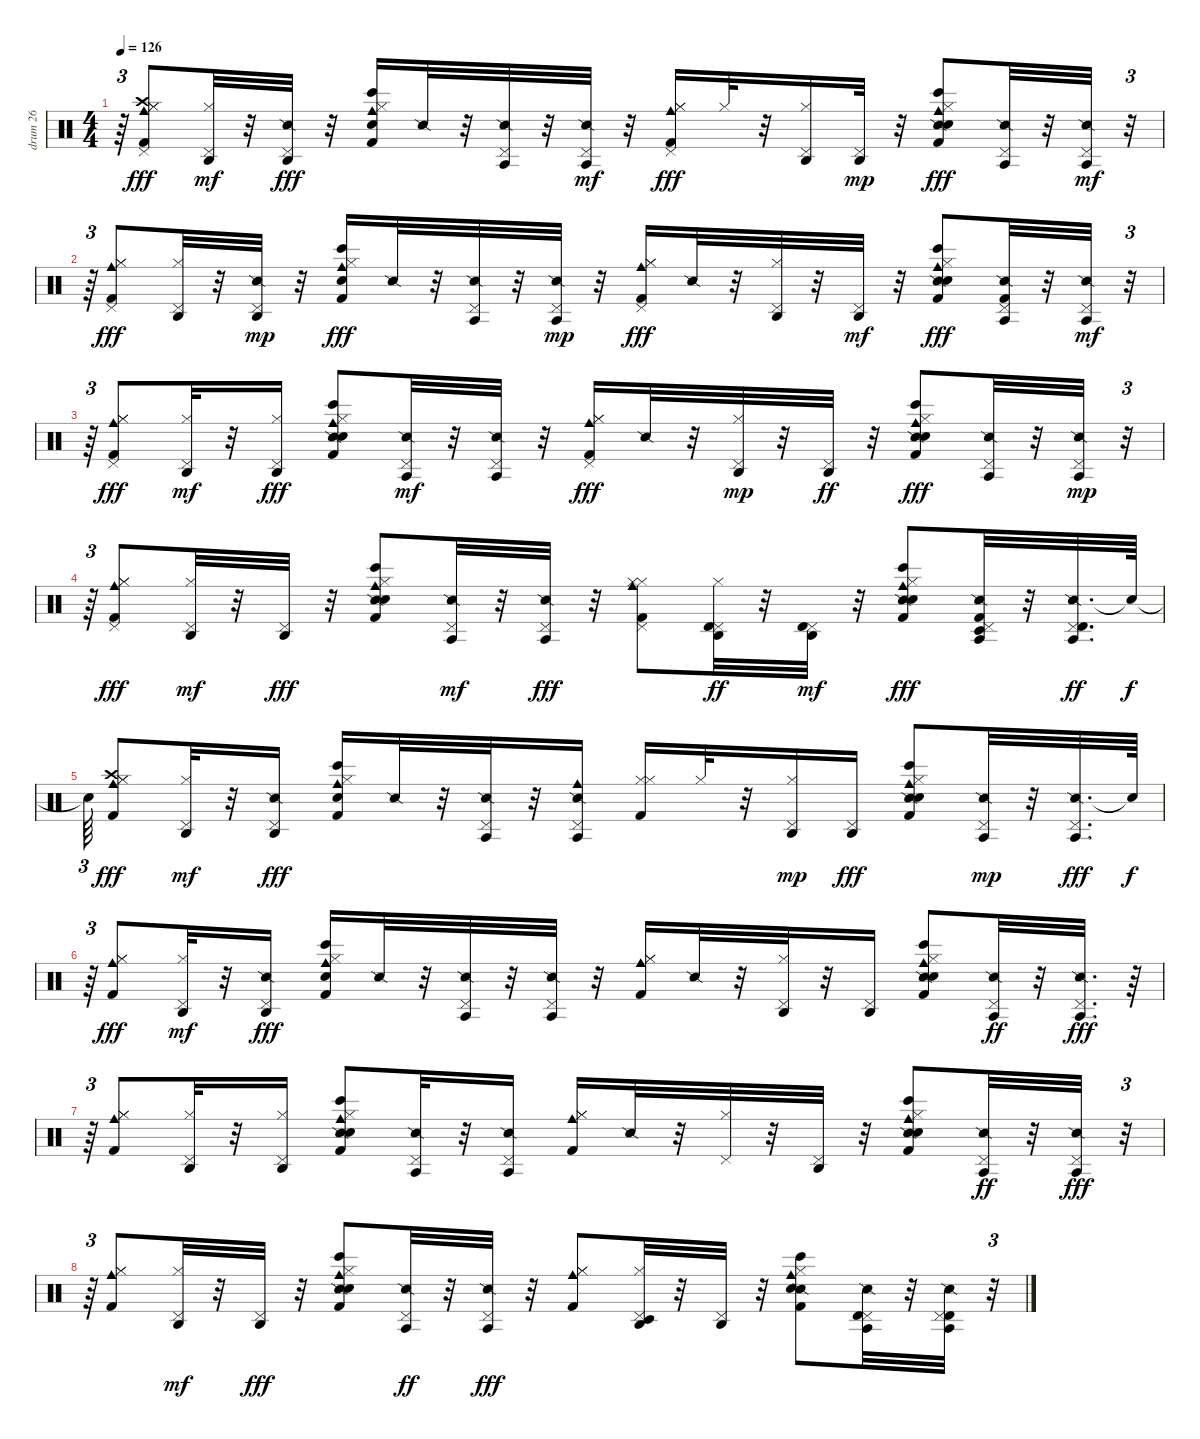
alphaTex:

\track ("drum 26" "drum 26") {instrument percussion}
\staff {score}
\articulation defaults
\ts (4 4)
\tempo 126
\clef neutral
\ks c
r.64{tu (3 2) dy fff} ("Hi-Hat (closed)" "Kick (hit) 2" "Hi-Hat (closed)" "Pedal Hi-Hat (hit)" "Crash high (hit)" "Cowbell medium (hit)").8 ("Hi-Hat (closed)" "Pedal Hi-Hat (hit)" "Agogo high (hit)").32{dy mf} r.32 ("Snare (side stick) 2" "Pedal Hi-Hat (hit)" "Agogo high (hit)").32{dy fff} r.32 ("Bongo High (hit)" "Kick (hit) 2" "Hand Clap (hit)" "Hi-Hat (closed)" "Cowbell medium (hit)").16 "Snare (side stick) 2".32 r.32 ("Snare (side stick) 2" "Pedal Hi-Hat (hit)" "Agogo tow (hit)").32 r.32 ("Snare (side stick) 2" "Pedal Hi-Hat (hit)" "Agogo tow (hit)").32{dy mf} r.32 ("Hi-Hat (closed)" "Kick (hit) 2" "Hi-Hat (closed)" "Pedal Hi-Hat (hit)" "Cowbell medium (hit)").16{dy fff} "Hi-Hat (closed)".32 r.32 ("Hi-Hat (closed)" "Pedal Hi-Hat (hit)" "Agogo high (hit)").16 ("Pedal Hi-Hat (hit)" "Agogo high (hit)").32{dy mp} r.32 ("Bongo High (hit)" "Snare (side stick) 2" "Kick (hit) 2" "Hand Clap (hit)" "Hi-Hat (closed)" "Cowbell medium (hit)").8{dy fff} ("Snare (side stick) 2" "Pedal Hi-Hat (hit)" "Agogo tow (hit)").32 r.32 ("Snare (side stick) 2" "Pedal Hi-Hat (hit)" "Agogo tow (hit)").32{dy mf} r.32{tu (3 2)} |
r.64{tu (3 2)} ("Hi-Hat (closed)" "Kick (hit) 2" "Hi-Hat (closed)" "Pedal Hi-Hat (hit)" "Cowbell medium (hit)").8{dy fff} ("Hi-Hat (closed)" "Pedal Hi-Hat (hit)" "Agogo high (hit)").32 r.32 ("Snare (side stick) 2" "Pedal Hi-Hat (hit)" "Agogo high (hit)").32{dy mp} r.32 ("Bongo High (hit)" "Kick (hit) 2" "Hand Clap (hit)" "Hi-Hat (closed)" "Cowbell medium (hit)").16{dy fff} "Snare (side stick) 2".32 r.32 ("Snare (side stick) 2" "Pedal Hi-Hat (hit)" "Agogo tow (hit)").32 r.32 ("Snare (side stick) 2" "Pedal Hi-Hat (hit)" "Agogo tow (hit)").32{dy mp} r.32 ("Hi-Hat (closed)" "Kick (hit) 2" "Hi-Hat (closed)" "Pedal Hi-Hat (hit)" "Cowbell medium (hit)").16{dy fff} "Snare (side stick) 2".32 r.32 ("Hi-Hat (closed)" "Pedal Hi-Hat (hit)" "Agogo high (hit)").32 r.32 ("Pedal Hi-Hat (hit)" "Agogo high (hit)").32{dy mf} r.32 ("Bongo High (hit)" "Snare (side stick) 2" "Kick (hit) 2" "Hand Clap (hit)" "Hi-Hat (closed)" "Cowbell medium (hit)").8{dy fff} ("Snare (side stick) 2" "Kick (hit) 2" "Pedal Hi-Hat (hit)" "Agogo tow (hit)").32 r.32 ("Snare (side stick) 2" "Pedal Hi-Hat (hit)" "Agogo tow (hit)").32{dy mf} r.32{tu (3 2)} |
r.64{tu (3 2)} ("Hi-Hat (closed)" "Kick (hit) 2" "Hi-Hat (closed)" "Pedal Hi-Hat (hit)" "Cowbell medium (hit)").8{dy fff} ("Hi-Hat (closed)" "Pedal Hi-Hat (hit)" "Agogo high (hit)").32{dy mf} r.32 ("Hi-Hat (closed)" "Pedal Hi-Hat (hit)" "Agogo high (hit)").16{dy fff} ("Bongo High (hit)" "Snare (side stick) 2" "Kick (hit) 2" "Hand Clap (hit)" "Hi-Hat (closed)" "Cowbell medium (hit)").8 ("Snare (side stick) 2" "Pedal Hi-Hat (hit)" "Agogo tow (hit)").32{dy mf} r.32 ("Snare (side stick) 2" "Pedal Hi-Hat (hit)" "Agogo tow (hit)").32 r.32 ("Hi-Hat (closed)" "Kick (hit) 2" "Hi-Hat (closed)" "Pedal Hi-Hat (hit)" "Cowbell medium (hit)").16{dy fff} "Snare (side stick) 2".32 r.32 ("Hi-Hat (closed)" "Pedal Hi-Hat (hit)" "Agogo high (hit)").32{dy mp} r.32 ("Pedal Hi-Hat (hit)" "Agogo high (hit)").32{dy ff} r.32 ("Bongo High (hit)" "Snare (side stick) 2" "Kick (hit) 2" "Hand Clap (hit)" "Hi-Hat (closed)" "Cowbell medium (hit)").8{dy fff} ("Snare (side stick) 2" "Pedal Hi-Hat (hit)" "Agogo tow (hit)").32 r.32 ("Snare (side stick) 2" "Pedal Hi-Hat (hit)" "Agogo tow (hit)").32{dy mp} r.32{tu (3 2)} |
r.64{tu (3 2)} ("Hi-Hat (closed)" "Kick (hit) 2" "Hi-Hat (closed)" "Pedal Hi-Hat (hit)" "Cowbell medium (hit)").8{dy fff} ("Hi-Hat (closed)" "Pedal Hi-Hat (hit)" "Agogo high (hit)").32{dy mf} r.32 ("Pedal Hi-Hat (hit)" "Agogo high (hit)").32{dy fff} r.32 ("Bongo High (hit)" "Snare (side stick) 2" "Kick (hit) 2" "Hand Clap (hit)" "Hi-Hat (closed)" "Cowbell medium (hit)").8 ("Snare (side stick) 2" "Pedal Hi-Hat (hit)" "Agogo tow (hit)").32{dy mf} r.32 ("Snare (side stick) 2" "Pedal Hi-Hat (hit)" "Agogo tow (hit)").32{dy fff} r.32 ("Hi-Hat (closed)" "Kick (hit) 2" "Hi-Hat (closed)" "Pedal Hi-Hat (hit)" "Cowbell medium (hit)").8 ("Hi-Hat (closed)" "Pedal Hi-Hat (hit)" "Timbale high (hit)" "Agogo high (hit)").32{dy ff} r.32 ("Pedal Hi-Hat (hit)" "Timbale high (hit)" "Agogo high (hit)").32{dy mf} r.32 ("Bongo High (hit)" "Snare (side stick) 2" "Kick (hit) 2" "Hand Clap (hit)" "Hi-Hat (closed)" "Cowbell medium (hit)").8{dy fff} ("Snare (side stick) 2" "Kick (hit) 2" "Pedal Hi-Hat (hit)" "Timbale low (hit)" "Agogo tow (hit)").32 r.32 ("Snare (side stick) 2" "Pedal Hi-Hat (hit)" "Timbale high (hit)" "Agogo tow (hit)").32{d dy ff} "Snare (hit)"{t}.64{dy f} |
"Snare (hit)"{t}.64{tu (3 2)} ("Hi-Hat (closed)" "Kick (hit) 2" "Hi-Hat (closed)" "Crash high (hit)" "Cowbell medium (hit)").8{dy fff} ("Hi-Hat (closed)" "Pedal Hi-Hat (hit)" "Agogo high (hit)").32{dy mf} r.32 ("Snare (side stick) 2" "Agogo high (hit)" "Pedal Hi-Hat (hit)").16{dy fff} ("Bongo High (hit)" "Kick (hit) 2" "Hand Clap (hit)" "Hi-Hat (closed)" "Cowbell medium (hit)").16 "Snare (side stick) 2".32 r.32 ("Snare (side stick) 2" "Pedal Hi-Hat (hit)" "Agogo tow (hit)").32 r.32 ("Snare (side stick) 2" "Cowbell medium (hit)" "Agogo tow (hit)" "Pedal Hi-Hat (hit)").16 ("Hi-Hat (closed)" "Kick (hit) 2" "Hi-Hat (closed)").16 "Hi-Hat (closed)".32 r.32 ("Hi-Hat (closed)" "Pedal Hi-Hat (hit)" "Agogo high (hit)").16{dy mp} ("Agogo high (hit)" "Pedal Hi-Hat (hit)").16{dy fff} ("Bongo High (hit)" "Snare (side stick) 2" "Kick (hit) 2" "Hand Clap (hit)" "Hi-Hat (closed)" "Cowbell medium (hit)").8 ("Snare (side stick) 2" "Pedal Hi-Hat (hit)" "Agogo tow (hit)").32{dy mp} r.32 ("Snare (side stick) 2" "Agogo tow (hit)" "Pedal Hi-Hat (hit)").32{d dy fff} "Snare (hit)"{t}.64{dy f} |
r.64{tu (3 2)} ("Hi-Hat (closed)" "Kick (hit) 2" "Hi-Hat (closed)" "Cowbell medium (hit)").8{dy fff} ("Hi-Hat (closed)" "Pedal Hi-Hat (hit)" "Agogo high (hit)").32{dy mf} r.32 ("Snare (side stick) 2" "Agogo high (hit)" "Pedal Hi-Hat (hit)").16{dy fff} ("Bongo High (hit)" "Kick (hit) 2" "Hand Clap (hit)" "Hi-Hat (closed)" "Cowbell medium (hit)").16 "Snare (side stick) 2".32 r.32 ("Snare (side stick) 2" "Pedal Hi-Hat (hit)" "Agogo tow (hit)").32 r.32 ("Snare (side stick) 2" "Agogo tow (hit)" "Pedal Hi-Hat (hit)").32 r.32 ("Hi-Hat (closed)" "Kick (hit) 2" "Hi-Hat (closed)" "Cowbell medium (hit)").16 "Snare (side stick) 2".32 r.32 ("Hi-Hat (closed)" "Pedal Hi-Hat (hit)" "Agogo high (hit)").32 r.32 ("Agogo high (hit)" "Pedal Hi-Hat (hit)").16 ("Bongo High (hit)" "Snare (side stick) 2" "Kick (hit) 2" "Hand Clap (hit)" "Hi-Hat (closed)" "Cowbell medium (hit)").8 ("Snare (side stick) 2" "Pedal Hi-Hat (hit)" "Agogo tow (hit)").32{dy ff} r.32 ("Snare (side stick) 2" "Agogo tow (hit)" "Pedal Hi-Hat (hit)").32{d dy fff} r.64 |
r.64{tu (3 2)} ("Hi-Hat (closed)" "Kick (hit) 2" "Hi-Hat (closed)" "Cowbell medium (hit)").8 ("Hi-Hat (closed)" "Pedal Hi-Hat (hit)" "Agogo high (hit)").32 r.32 ("Hi-Hat (closed)" "Agogo high (hit)" "Pedal Hi-Hat (hit)").16 ("Bongo High (hit)" "Snare (side stick) 2" "Kick (hit) 2" "Hand Clap (hit)" "Hi-Hat (closed)" "Cowbell medium (hit)").8 ("Snare (side stick) 2" "Pedal Hi-Hat (hit)" "Agogo tow (hit)").32 r.32 ("Snare (side stick) 2" "Agogo tow (hit)" "Pedal Hi-Hat (hit)").16 ("Hi-Hat (closed)" "Kick (hit) 2" "Hi-Hat (closed)" "Cowbell medium (hit)").16 "Snare (side stick) 2".32 r.32 ("Hi-Hat (closed)" "Pedal Hi-Hat (hit)").32 r.32 ("Agogo high (hit)" "Pedal Hi-Hat (hit)").32 r.32 ("Bongo High (hit)" "Snare (side stick) 2" "Kick (hit) 2" "Hand Clap (hit)" "Hi-Hat (closed)" "Cowbell medium (hit)").8 ("Snare (side stick) 2" "Pedal Hi-Hat (hit)" "Agogo tow (hit)").32{dy ff} r.32 ("Snare (side stick) 2" "Agogo tow (hit)" "Pedal Hi-Hat (hit)").32{dy fff} r.32{tu (3 2)} |
r.64{tu (3 2)} ("Hi-Hat (closed)" "Kick (hit) 2" "Hi-Hat (closed)" "Cowbell medium (hit)").8 ("Hi-Hat (closed)" "Pedal Hi-Hat (hit)" "Agogo high (hit)").32{dy mf} r.32 ("Agogo high (hit)" "Pedal Hi-Hat (hit)").32{dy fff} r.32 ("Bongo High (hit)" "Snare (side stick) 2" "Kick (hit) 2" "Hand Clap (hit)" "Hi-Hat (closed)" "Cowbell medium (hit)").8 ("Snare (side stick) 2" "Pedal Hi-Hat (hit)" "Agogo tow (hit)").32{dy ff} r.32 ("Snare (side stick) 2" "Agogo tow (hit)" "Pedal Hi-Hat (hit)").32{dy fff} r.32 ("Hi-Hat (closed)" "Kick (hit) 2" "Hi-Hat (closed)" "Cowbell medium (hit)").8 ("Hi-Hat (closed)" "Pedal Hi-Hat (hit)" "Timbale low (hit)" "Agogo high (hit)").32 r.32 ("Agogo high (hit)" "Pedal Hi-Hat (hit)").32 r.32 ("Bongo High (hit)" "Snare (side stick) 2" "Kick (hit) 2" "Hand Clap (hit)" "Hi-Hat (closed)" "Cowbell medium (hit)").8 ("Snare (side stick) 2" "Pedal Hi-Hat (hit)" "Timbale high (hit)" "Agogo tow (hit)").32 r.32 ("Snare (side stick) 2" "Timbale high (hit)" "Agogo tow (hit)" "Pedal Hi-Hat (hit)").32 r.32{tu (3 2)}
